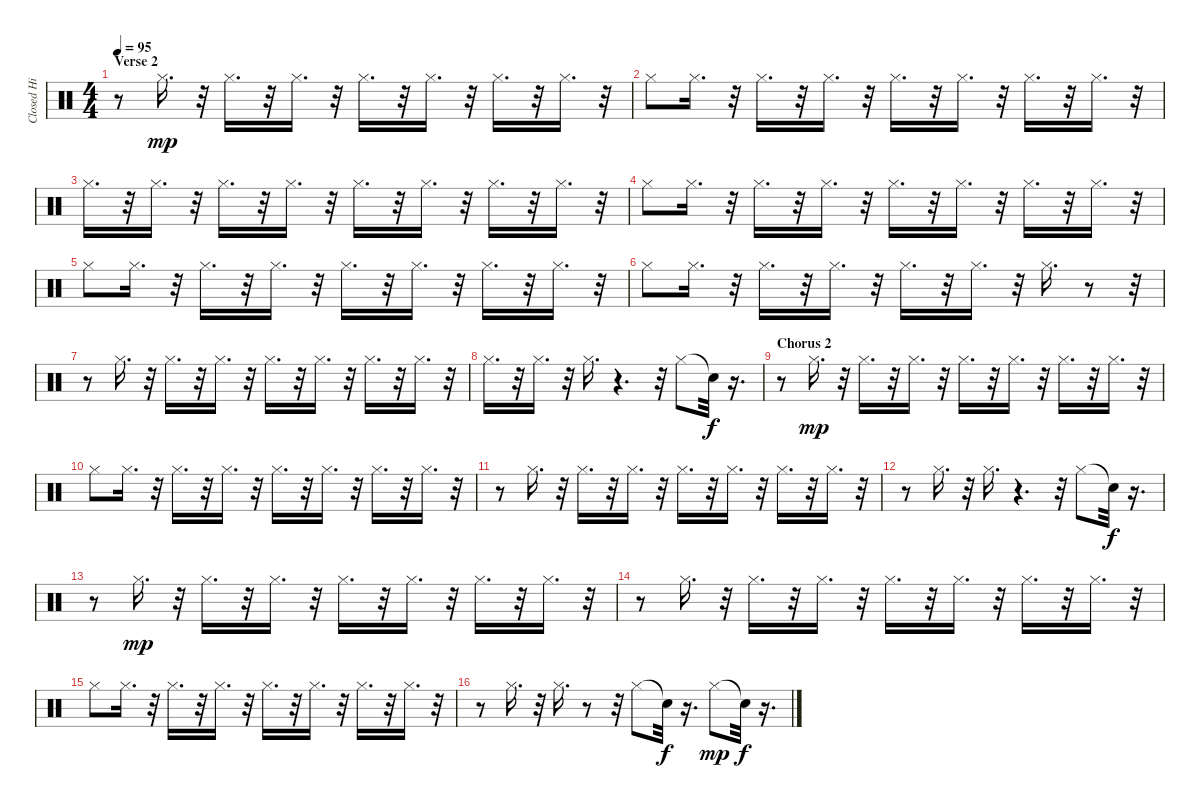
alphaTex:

\track ("Closed Hi Hat" "Closed Hi ") {instrument percussion}
\staff {score}
\articulation defaults
\ts (4 4)
\section ("" "Verse 2")
\tempo 95
\clef neutral
\ks c
r.8{dy mp} "Hi-Hat (closed)".16{d} r.32 "Hi-Hat (closed)".16{d} r.32 "Hi-Hat (closed)".16{d} r.32 "Hi-Hat (closed)".16{d} r.32 "Hi-Hat (closed)".16{d} r.32 "Hi-Hat (closed)".16{d} r.32 "Hi-Hat (closed)".16{d} r.32 |
"Hi-Hat (closed)".8 "Hi-Hat (closed)".16{d} r.32 "Hi-Hat (closed)".16{d} r.32 "Hi-Hat (closed)".16{d} r.32 "Hi-Hat (closed)".16{d} r.32 "Hi-Hat (closed)".16{d} r.32 "Hi-Hat (closed)".16{d} r.32 "Hi-Hat (closed)".16{d} r.32 |
"Hi-Hat (closed)".16{d} r.32 "Hi-Hat (closed)".16{d} r.32 "Hi-Hat (closed)".16{d} r.32 "Hi-Hat (closed)".16{d} r.32 "Hi-Hat (closed)".16{d} r.32 "Hi-Hat (closed)".16{d} r.32 "Hi-Hat (closed)".16{d} r.32 "Hi-Hat (closed)".16{d} r.32 |
"Hi-Hat (closed)".8 "Hi-Hat (closed)".16{d} r.32 "Hi-Hat (closed)".16{d} r.32 "Hi-Hat (closed)".16{d} r.32 "Hi-Hat (closed)".16{d} r.32 "Hi-Hat (closed)".16{d} r.32 "Hi-Hat (closed)".16{d} r.32 "Hi-Hat (closed)".16{d} r.32 |
"Hi-Hat (closed)".8 "Hi-Hat (closed)".16{d} r.32 "Hi-Hat (closed)".16{d} r.32 "Hi-Hat (closed)".16{d} r.32 "Hi-Hat (closed)".16{d} r.32 "Hi-Hat (closed)".16{d} r.32 "Hi-Hat (closed)".16{d} r.32 "Hi-Hat (closed)".16{d} r.32 |
"Hi-Hat (closed)".8 "Hi-Hat (closed)".16{d} r.32 "Hi-Hat (closed)".16{d} r.32 "Hi-Hat (closed)".16{d} r.32 "Hi-Hat (closed)".16{d} r.32 "Hi-Hat (closed)".16{d} r.32 "Hi-Hat (closed)".16{d} r.8 r.32 |
r.8 "Hi-Hat (closed)".16{d} r.32 "Hi-Hat (closed)".16{d} r.32 "Hi-Hat (closed)".16{d} r.32 "Hi-Hat (closed)".16{d} r.32 "Hi-Hat (closed)".16{d} r.32 "Hi-Hat (closed)".16{d} r.32 "Hi-Hat (closed)".16{d} r.32 |
"Hi-Hat (closed)".16{d} r.32 "Hi-Hat (closed)".16{d} r.32 "Hi-Hat (closed)".16{d} r.4{d} r.32 "Hi-Hat (closed)".8 "Snare (hit)"{t}.32{dy f} r.16{d} |
\section ("" "Chorus 2")
r.8 "Hi-Hat (closed)".16{d dy mp} r.32 "Hi-Hat (closed)".16{d} r.32 "Hi-Hat (closed)".16{d} r.32 "Hi-Hat (closed)".16{d} r.32 "Hi-Hat (closed)".16{d} r.32 "Hi-Hat (closed)".16{d} r.32 "Hi-Hat (closed)".16{d} r.32 |
"Hi-Hat (closed)".8 "Hi-Hat (closed)".16{d} r.32 "Hi-Hat (closed)".16{d} r.32 "Hi-Hat (closed)".16{d} r.32 "Hi-Hat (closed)".16{d} r.32 "Hi-Hat (closed)".16{d} r.32 "Hi-Hat (closed)".16{d} r.32 "Hi-Hat (closed)".16{d} r.32 |
r.8 "Hi-Hat (closed)".16{d} r.32 "Hi-Hat (closed)".16{d} r.32 "Hi-Hat (closed)".16{d} r.32 "Hi-Hat (closed)".16{d} r.32 "Hi-Hat (closed)".16{d} r.32 "Hi-Hat (closed)".16{d} r.32 "Hi-Hat (closed)".16{d} r.32 |
r.8 "Hi-Hat (closed)".16{d} r.32 "Hi-Hat (closed)".16{d} r.4{d} r.32 "Hi-Hat (closed)".8 "Snare (hit)"{t}.32{dy f} r.16{d} |
r.8 "Hi-Hat (closed)".16{d dy mp} r.32 "Hi-Hat (closed)".16{d} r.32 "Hi-Hat (closed)".16{d} r.32 "Hi-Hat (closed)".16{d} r.32 "Hi-Hat (closed)".16{d} r.32 "Hi-Hat (closed)".16{d} r.32 "Hi-Hat (closed)".16{d} r.32 |
r.8 "Hi-Hat (closed)".16{d} r.32 "Hi-Hat (closed)".16{d} r.32 "Hi-Hat (closed)".16{d} r.32 "Hi-Hat (closed)".16{d} r.32 "Hi-Hat (closed)".16{d} r.32 "Hi-Hat (closed)".16{d} r.32 "Hi-Hat (closed)".16{d} r.32 |
"Hi-Hat (closed)".8 "Hi-Hat (closed)".16{d} r.32 "Hi-Hat (closed)".16{d} r.32 "Hi-Hat (closed)".16{d} r.32 "Hi-Hat (closed)".16{d} r.32 "Hi-Hat (closed)".16{d} r.32 "Hi-Hat (closed)".16{d} r.32 "Hi-Hat (closed)".16{d} r.32 |
r.8 "Hi-Hat (closed)".16{d} r.32 "Hi-Hat (closed)".16{d} r.8 r.32 "Hi-Hat (closed)".8 "Snare (hit)"{t}.32{dy f} r.16{d} "Hi-Hat (closed)".8{dy mp} "Snare (hit)"{t}.32{dy f} r.16{d}
